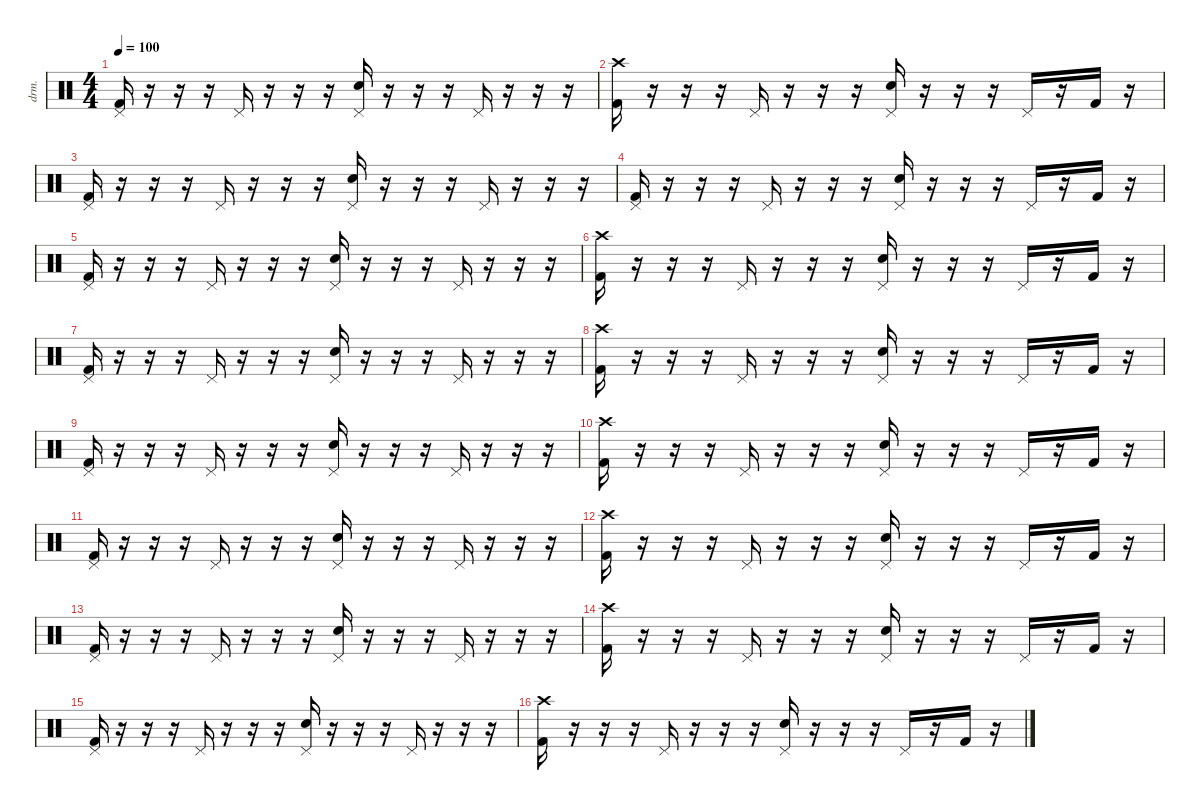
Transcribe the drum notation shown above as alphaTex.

\defaultSystemsLayout 4
\hideDynamics
\bracketExtendMode nobrackets
\otherSystemsTrackNameOrientation horizontal
\track ("Drums" "drm.") {instrument percussion}
\staff {score}
\articulation defaults
\ts (4 4)
\tempo 100
\clef neutral
\ks c
("Kick (hit) 2" "Pedal Hi-Hat (hit)").16{dy ff beam Up} r.16{beam Up} r.16{beam Up} r.16{beam Up} "Pedal Hi-Hat (hit)".16{beam Up} r.16{beam Up} r.16{beam Up} r.16{beam Up} ("Snare (hit) 2" "Pedal Hi-Hat (hit)").16{beam Up} r.16{beam Up} r.16{beam Up} r.16{beam Up} "Pedal Hi-Hat (hit)".16{beam Up} r.16{beam Up} r.16{beam Up} r.16{beam Up} |
("Kick (hit) 2" "Crash high (hit)").16{beam Down} r.16{beam Down} r.16{beam Down} r.16{beam Down} "Pedal Hi-Hat (hit)".16{beam Up} r.16{beam Up} r.16{beam Up} r.16{beam Up} ("Snare (hit) 2" "Pedal Hi-Hat (hit)").16{beam Up} r.16{beam Up} r.16{beam Up} r.16{beam Up} "Pedal Hi-Hat (hit)".16{beam Up} r.16{beam Up} "Kick (hit) 2".16{dy f beam Up} r.16{beam Up} |
("Kick (hit) 2" "Pedal Hi-Hat (hit)").16{dy ff beam Up} r.16{beam Up} r.16{beam Up} r.16{beam Up} "Pedal Hi-Hat (hit)".16{beam Up} r.16{beam Up} r.16{beam Up} r.16{beam Up} ("Snare (hit) 2" "Pedal Hi-Hat (hit)").16{beam Up} r.16{beam Up} r.16{beam Up} r.16{beam Up} "Pedal Hi-Hat (hit)".16{beam Up} r.16{beam Up} r.16{beam Up} r.16{beam Up} |
("Kick (hit) 2" "Pedal Hi-Hat (hit)").16{beam Up} r.16{beam Up} r.16{beam Up} r.16{beam Up} "Pedal Hi-Hat (hit)".16{beam Up} r.16{beam Up} r.16{beam Up} r.16{beam Up} ("Snare (hit) 2" "Pedal Hi-Hat (hit)").16{beam Up} r.16{beam Up} r.16{beam Up} r.16{beam Up} "Pedal Hi-Hat (hit)".16{beam Up} r.16{beam Up} "Kick (hit) 2".16{dy f beam Up} r.16{beam Up} |
("Kick (hit) 2" "Pedal Hi-Hat (hit)").16{dy ff beam Up} r.16{beam Up} r.16{beam Up} r.16{beam Up} "Pedal Hi-Hat (hit)".16{beam Up} r.16{beam Up} r.16{beam Up} r.16{beam Up} ("Snare (hit) 2" "Pedal Hi-Hat (hit)").16{beam Up} r.16{beam Up} r.16{beam Up} r.16{beam Up} "Pedal Hi-Hat (hit)".16{beam Up} r.16{beam Up} r.16{beam Up} r.16{beam Up} |
("Kick (hit) 2" "Crash high (hit)").16{beam Down} r.16{beam Down} r.16{beam Down} r.16{beam Down} "Pedal Hi-Hat (hit)".16{beam Up} r.16{beam Up} r.16{beam Up} r.16{beam Up} ("Snare (hit) 2" "Pedal Hi-Hat (hit)").16{beam Up} r.16{beam Up} r.16{beam Up} r.16{beam Up} "Pedal Hi-Hat (hit)".16{beam Up} r.16{beam Up} "Kick (hit) 2".16{dy f beam Up} r.16{beam Up} |
("Kick (hit) 2" "Pedal Hi-Hat (hit)").16{dy ff beam Up} r.16{beam Up} r.16{beam Up} r.16{beam Up} "Pedal Hi-Hat (hit)".16{beam Up} r.16{beam Up} r.16{beam Up} r.16{beam Up} ("Snare (hit) 2" "Pedal Hi-Hat (hit)").16{beam Up} r.16{beam Up} r.16{beam Up} r.16{beam Up} "Pedal Hi-Hat (hit)".16{beam Up} r.16{beam Up} r.16{beam Up} r.16{beam Up} |
("Kick (hit) 2" "Crash high (hit)").16{beam Down} r.16{beam Down} r.16{beam Down} r.16{beam Down} "Pedal Hi-Hat (hit)".16{beam Up} r.16{beam Up} r.16{beam Up} r.16{beam Up} ("Snare (hit) 2" "Pedal Hi-Hat (hit)").16{beam Up} r.16{beam Up} r.16{beam Up} r.16{beam Up} "Pedal Hi-Hat (hit)".16{beam Up} r.16{beam Up} "Kick (hit) 2".16{dy f beam Up} r.16{beam Up} |
("Kick (hit) 2" "Pedal Hi-Hat (hit)").16{dy ff beam Up} r.16{beam Up} r.16{beam Up} r.16{beam Up} "Pedal Hi-Hat (hit)".16{beam Up} r.16{beam Up} r.16{beam Up} r.16{beam Up} ("Snare (hit) 2" "Pedal Hi-Hat (hit)").16{beam Up} r.16{beam Up} r.16{beam Up} r.16{beam Up} "Pedal Hi-Hat (hit)".16{beam Up} r.16{beam Up} r.16{beam Up} r.16{beam Up} |
("Kick (hit) 2" "Crash high (hit)").16{beam Down} r.16{beam Down} r.16{beam Down} r.16{beam Down} "Pedal Hi-Hat (hit)".16{beam Up} r.16{beam Up} r.16{beam Up} r.16{beam Up} ("Snare (hit) 2" "Pedal Hi-Hat (hit)").16{beam Up} r.16{beam Up} r.16{beam Up} r.16{beam Up} "Pedal Hi-Hat (hit)".16{beam Up} r.16{beam Up} "Kick (hit) 2".16{dy f beam Up} r.16{beam Up} |
("Kick (hit) 2" "Pedal Hi-Hat (hit)").16{dy ff beam Up} r.16{beam Up} r.16{beam Up} r.16{beam Up} "Pedal Hi-Hat (hit)".16{beam Up} r.16{beam Up} r.16{beam Up} r.16{beam Up} ("Snare (hit) 2" "Pedal Hi-Hat (hit)").16{beam Up} r.16{beam Up} r.16{beam Up} r.16{beam Up} "Pedal Hi-Hat (hit)".16{beam Up} r.16{beam Up} r.16{beam Up} r.16{beam Up} |
("Kick (hit) 2" "Crash high (hit)").16{beam Down} r.16{beam Down} r.16{beam Down} r.16{beam Down} "Pedal Hi-Hat (hit)".16{beam Up} r.16{beam Up} r.16{beam Up} r.16{beam Up} ("Snare (hit) 2" "Pedal Hi-Hat (hit)").16{beam Up} r.16{beam Up} r.16{beam Up} r.16{beam Up} "Pedal Hi-Hat (hit)".16{beam Up} r.16{beam Up} "Kick (hit) 2".16{dy f beam Up} r.16{beam Up} |
("Kick (hit) 2" "Pedal Hi-Hat (hit)").16{dy ff beam Up} r.16{beam Up} r.16{beam Up} r.16{beam Up} "Pedal Hi-Hat (hit)".16{beam Up} r.16{beam Up} r.16{beam Up} r.16{beam Up} ("Snare (hit) 2" "Pedal Hi-Hat (hit)").16{beam Up} r.16{beam Up} r.16{beam Up} r.16{beam Up} "Pedal Hi-Hat (hit)".16{beam Up} r.16{beam Up} r.16{beam Up} r.16{beam Up} |
("Kick (hit) 2" "Crash high (hit)").16{beam Down} r.16{beam Down} r.16{beam Down} r.16{beam Down} "Pedal Hi-Hat (hit)".16{beam Up} r.16{beam Up} r.16{beam Up} r.16{beam Up} ("Snare (hit) 2" "Pedal Hi-Hat (hit)").16{beam Up} r.16{beam Up} r.16{beam Up} r.16{beam Up} "Pedal Hi-Hat (hit)".16{beam Up} r.16{beam Up} "Kick (hit) 2".16{dy f beam Up} r.16{beam Up} |
("Kick (hit) 2" "Pedal Hi-Hat (hit)").16{dy ff beam Up} r.16{beam Up} r.16{beam Up} r.16{beam Up} "Pedal Hi-Hat (hit)".16{beam Up} r.16{beam Up} r.16{beam Up} r.16{beam Up} ("Snare (hit) 2" "Pedal Hi-Hat (hit)").16{beam Up} r.16{beam Up} r.16{beam Up} r.16{beam Up} "Pedal Hi-Hat (hit)".16{beam Up} r.16{beam Up} r.16{beam Up} r.16{beam Up} |
("Kick (hit) 2" "Crash high (hit)").16{beam Down} r.16{beam Down} r.16{beam Down} r.16{beam Down} "Pedal Hi-Hat (hit)".16{beam Up} r.16{beam Up} r.16{beam Up} r.16{beam Up} ("Snare (hit) 2" "Pedal Hi-Hat (hit)").16{beam Up} r.16{beam Up} r.16{beam Up} r.16{beam Up} "Pedal Hi-Hat (hit)".16{beam Up} r.16{beam Up} "Kick (hit) 2".16{dy f beam Up} r.16{beam Up}
